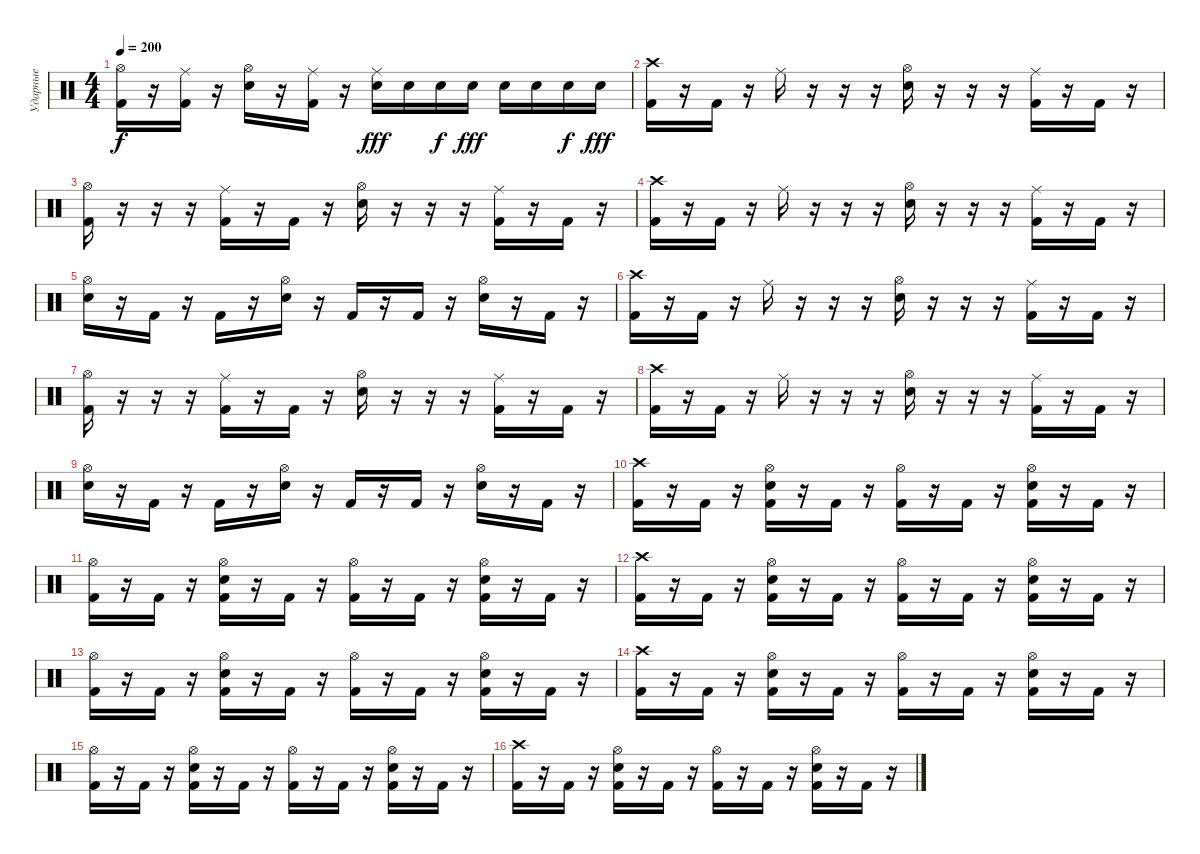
\track ("Ударные" "Ударные") {instrument percussion}
\staff {score}
\articulation defaults
\ts (4 4)
\tempo 200
\clef neutral
\ks c
("Hi-Hat (open)" "Kick (hit) 2").16{dy f} r.16 ("Ride (middle)" "Kick (hit) 2").16 r.16 ("Hi-Hat (open)" "Electric Snare (hit)").16 r.16 ("Ride (middle)" "Kick (hit) 2").16 r.16 ("Ride (middle)" "Electric Snare (hit)").16{dy fff} "Electric Snare (hit)".16 "Electric Snare (hit)".16{dy f} "Electric Snare (hit)".16{dy fff} "Electric Snare (hit)".16 "Electric Snare (hit)".16 "Electric Snare (hit)".16{dy f} "Electric Snare (hit)".16{dy fff} |
("Crash high (hit)" "Kick (hit) 2").16 r.16 "Kick (hit) 2".16 r.16 "Ride (middle)".16 r.16 r.16 r.16 ("Hi-Hat (open)" "Electric Snare (hit)").16 r.16 r.16 r.16 ("Ride (middle)" "Kick (hit) 2").16 r.16 "Kick (hit) 2".16 r.16 |
("Hi-Hat (open)" "Kick (hit) 2").16 r.16 r.16 r.16 ("Ride (middle)" "Kick (hit) 2").16 r.16 "Kick (hit) 2".16 r.16 ("Hi-Hat (open)" "Electric Snare (hit)").16 r.16 r.16 r.16 ("Ride (middle)" "Kick (hit) 2").16 r.16 "Kick (hit) 2".16 r.16 |
("Crash high (hit)" "Kick (hit) 2").16 r.16 "Kick (hit) 2".16 r.16 "Ride (middle)".16 r.16 r.16 r.16 ("Hi-Hat (open)" "Electric Snare (hit)").16 r.16 r.16 r.16 ("Ride (middle)" "Kick (hit) 2").16 r.16 "Kick (hit) 2".16 r.16 |
("Hi-Hat (open)" "Electric Snare (hit)").16 r.16 "Kick (hit) 2".16 r.16 "Kick (hit) 2".16 r.16 ("Hi-Hat (open)" "Electric Snare (hit)").16 r.16 "Kick (hit) 2".16 r.16 "Kick (hit) 2".16 r.16 ("Hi-Hat (open)" "Electric Snare (hit)").16 r.16 "Kick (hit) 2".16 r.16 |
("Crash high (hit)" "Kick (hit) 2").16 r.16 "Kick (hit) 2".16 r.16 "Ride (middle)".16 r.16 r.16 r.16 ("Hi-Hat (open)" "Electric Snare (hit)").16 r.16 r.16 r.16 ("Ride (middle)" "Kick (hit) 2").16 r.16 "Kick (hit) 2".16 r.16 |
("Hi-Hat (open)" "Kick (hit) 2").16 r.16 r.16 r.16 ("Ride (middle)" "Kick (hit) 2").16 r.16 "Kick (hit) 2".16 r.16 ("Hi-Hat (open)" "Electric Snare (hit)").16 r.16 r.16 r.16 ("Ride (middle)" "Kick (hit) 2").16 r.16 "Kick (hit) 2".16 r.16 |
("Crash high (hit)" "Kick (hit) 2").16 r.16 "Kick (hit) 2".16 r.16 "Ride (middle)".16 r.16 r.16 r.16 ("Hi-Hat (open)" "Electric Snare (hit)").16 r.16 r.16 r.16 ("Ride (middle)" "Kick (hit) 2").16 r.16 "Kick (hit) 2".16 r.16 |
("Hi-Hat (open)" "Electric Snare (hit)").16 r.16 "Kick (hit) 2".16 r.16 "Kick (hit) 2".16 r.16 ("Hi-Hat (open)" "Electric Snare (hit)").16 r.16 "Kick (hit) 2".16 r.16 "Kick (hit) 2".16 r.16 ("Hi-Hat (open)" "Electric Snare (hit)").16 r.16 "Kick (hit) 2".16 r.16 |
("Crash high (hit)" "Kick (hit) 2").16 r.16 "Kick (hit) 2".16 r.16 ("Hi-Hat (open)" "Electric Snare (hit)" "Kick (hit) 2").16 r.16 "Kick (hit) 2".16 r.16 ("Hi-Hat (open)" "Kick (hit) 2").16 r.16 "Kick (hit) 2".16 r.16 ("Hi-Hat (open)" "Electric Snare (hit)" "Kick (hit) 2").16 r.16 "Kick (hit) 2".16 r.16 |
("Hi-Hat (open)" "Kick (hit) 2").16 r.16 "Kick (hit) 2".16 r.16 ("Hi-Hat (open)" "Electric Snare (hit)" "Kick (hit) 2").16 r.16 "Kick (hit) 2".16 r.16 ("Hi-Hat (open)" "Kick (hit) 2").16 r.16 "Kick (hit) 2".16 r.16 ("Hi-Hat (open)" "Electric Snare (hit)" "Kick (hit) 2").16 r.16 "Kick (hit) 2".16 r.16 |
("Crash high (hit)" "Kick (hit) 2").16 r.16 "Kick (hit) 2".16 r.16 ("Hi-Hat (open)" "Electric Snare (hit)" "Kick (hit) 2").16 r.16 "Kick (hit) 2".16 r.16 ("Hi-Hat (open)" "Kick (hit) 2").16 r.16 "Kick (hit) 2".16 r.16 ("Hi-Hat (open)" "Electric Snare (hit)" "Kick (hit) 2").16 r.16 "Kick (hit) 2".16 r.16 |
("Hi-Hat (open)" "Kick (hit) 2").16 r.16 "Kick (hit) 2".16 r.16 ("Hi-Hat (open)" "Electric Snare (hit)" "Kick (hit) 2").16 r.16 "Kick (hit) 2".16 r.16 ("Hi-Hat (open)" "Kick (hit) 2").16 r.16 "Kick (hit) 2".16 r.16 ("Hi-Hat (open)" "Electric Snare (hit)" "Kick (hit) 2").16 r.16 "Kick (hit) 2".16 r.16 |
("Crash high (hit)" "Kick (hit) 2").16 r.16 "Kick (hit) 2".16 r.16 ("Hi-Hat (open)" "Electric Snare (hit)" "Kick (hit) 2").16 r.16 "Kick (hit) 2".16 r.16 ("Hi-Hat (open)" "Kick (hit) 2").16 r.16 "Kick (hit) 2".16 r.16 ("Hi-Hat (open)" "Electric Snare (hit)" "Kick (hit) 2").16 r.16 "Kick (hit) 2".16 r.16 |
("Hi-Hat (open)" "Kick (hit) 2").16 r.16 "Kick (hit) 2".16 r.16 ("Hi-Hat (open)" "Electric Snare (hit)" "Kick (hit) 2").16 r.16 "Kick (hit) 2".16 r.16 ("Hi-Hat (open)" "Kick (hit) 2").16 r.16 "Kick (hit) 2".16 r.16 ("Hi-Hat (open)" "Electric Snare (hit)" "Kick (hit) 2").16 r.16 "Kick (hit) 2".16 r.16 |
("Crash high (hit)" "Kick (hit) 2").16 r.16 "Kick (hit) 2".16 r.16 ("Hi-Hat (open)" "Electric Snare (hit)" "Kick (hit) 2").16 r.16 "Kick (hit) 2".16 r.16 ("Hi-Hat (open)" "Kick (hit) 2").16 r.16 "Kick (hit) 2".16 r.16 ("Hi-Hat (open)" "Electric Snare (hit)" "Kick (hit) 2").16 r.16 "Kick (hit) 2".16 r.16
